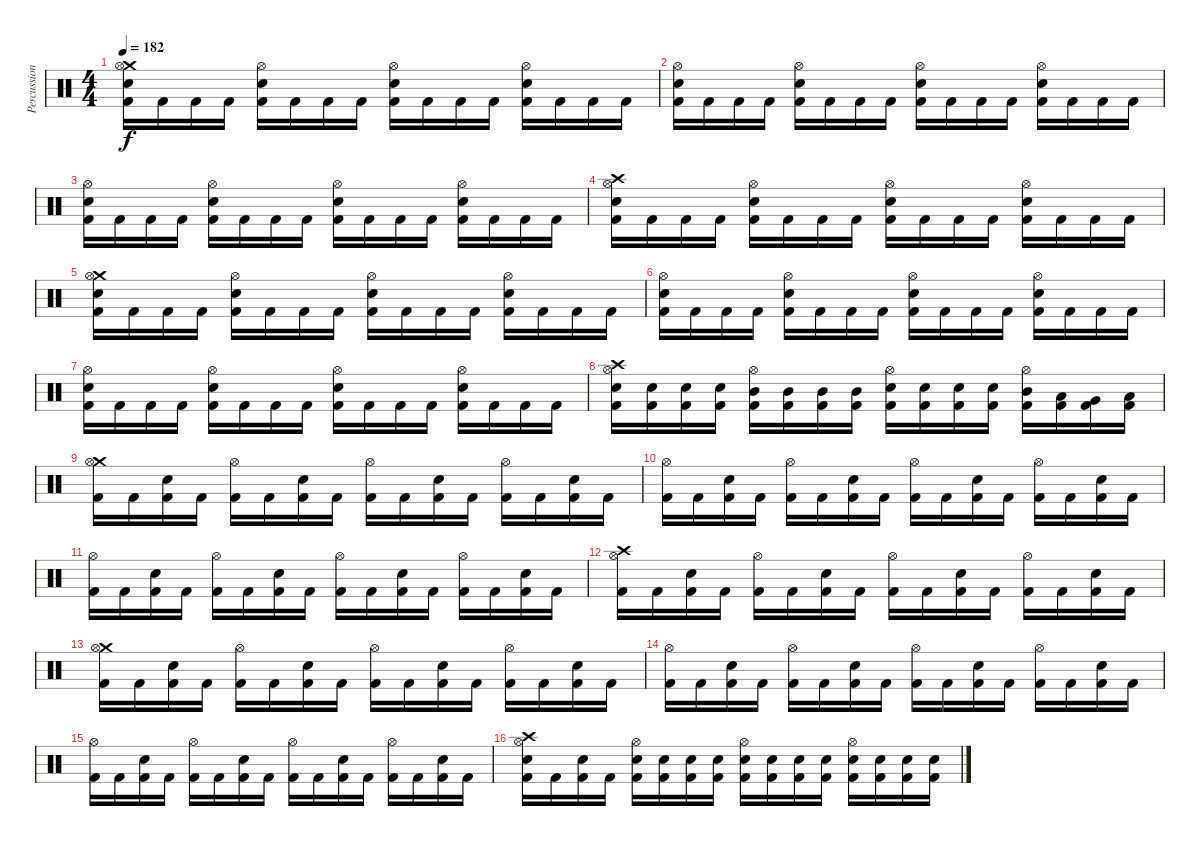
\track ("Percussion" "Percussion") {instrument percussion}
\staff {score}
\articulation defaults
\ts (4 4)
\tempo 182
\clef neutral
\ks c
("Crash medium (hit)" "Hi-Hat (open)" "Electric Snare (hit)" "Kick (hit) 2").16{dy f} "Kick (hit) 2".16 "Kick (hit) 2".16 "Kick (hit) 2".16 ("Hi-Hat (open)" "Electric Snare (hit)" "Kick (hit) 2").16 "Kick (hit) 2".16 "Kick (hit) 2".16 "Kick (hit) 2".16 ("Hi-Hat (open)" "Electric Snare (hit)" "Kick (hit) 2").16 "Kick (hit) 2".16 "Kick (hit) 2".16 "Kick (hit) 2".16 ("Hi-Hat (open)" "Electric Snare (hit)" "Kick (hit) 2").16 "Kick (hit) 2".16 "Kick (hit) 2".16 "Kick (hit) 2".16 |
("Hi-Hat (open)" "Electric Snare (hit)" "Kick (hit) 2").16 "Kick (hit) 2".16 "Kick (hit) 2".16 "Kick (hit) 2".16 ("Hi-Hat (open)" "Electric Snare (hit)" "Kick (hit) 2").16 "Kick (hit) 2".16 "Kick (hit) 2".16 "Kick (hit) 2".16 ("Hi-Hat (open)" "Electric Snare (hit)" "Kick (hit) 2").16 "Kick (hit) 2".16 "Kick (hit) 2".16 "Kick (hit) 2".16 ("Hi-Hat (open)" "Electric Snare (hit)" "Kick (hit) 2").16 "Kick (hit) 2".16 "Kick (hit) 2".16 "Kick (hit) 2".16 |
("Hi-Hat (open)" "Electric Snare (hit)" "Kick (hit) 2").16 "Kick (hit) 2".16 "Kick (hit) 2".16 "Kick (hit) 2".16 ("Hi-Hat (open)" "Electric Snare (hit)" "Kick (hit) 2").16 "Kick (hit) 2".16 "Kick (hit) 2".16 "Kick (hit) 2".16 ("Hi-Hat (open)" "Electric Snare (hit)" "Kick (hit) 2").16 "Kick (hit) 2".16 "Kick (hit) 2".16 "Kick (hit) 2".16 ("Hi-Hat (open)" "Electric Snare (hit)" "Kick (hit) 2").16 "Kick (hit) 2".16 "Kick (hit) 2".16 "Kick (hit) 2".16 |
("Crash high (hit)" "Hi-Hat (open)" "Electric Snare (hit)" "Kick (hit) 2").16 "Kick (hit) 2".16 "Kick (hit) 2".16 "Kick (hit) 2".16 ("Hi-Hat (open)" "Electric Snare (hit)" "Kick (hit) 2").16 "Kick (hit) 2".16 "Kick (hit) 2".16 "Kick (hit) 2".16 ("Hi-Hat (open)" "Electric Snare (hit)" "Kick (hit) 2").16 "Kick (hit) 2".16 "Kick (hit) 2".16 "Kick (hit) 2".16 ("Hi-Hat (open)" "Electric Snare (hit)" "Kick (hit) 2").16 "Kick (hit) 2".16 "Kick (hit) 2".16 "Kick (hit) 2".16 |
("Crash medium (hit)" "Hi-Hat (open)" "Electric Snare (hit)" "Kick (hit) 2").16 "Kick (hit) 2".16 "Kick (hit) 2".16 "Kick (hit) 2".16 ("Hi-Hat (open)" "Electric Snare (hit)" "Kick (hit) 2").16 "Kick (hit) 2".16 "Kick (hit) 2".16 "Kick (hit) 2".16 ("Hi-Hat (open)" "Electric Snare (hit)" "Kick (hit) 2").16 "Kick (hit) 2".16 "Kick (hit) 2".16 "Kick (hit) 2".16 ("Hi-Hat (open)" "Electric Snare (hit)" "Kick (hit) 2").16 "Kick (hit) 2".16 "Kick (hit) 2".16 "Kick (hit) 2".16 |
("Hi-Hat (open)" "Electric Snare (hit)" "Kick (hit) 2").16 "Kick (hit) 2".16 "Kick (hit) 2".16 "Kick (hit) 2".16 ("Hi-Hat (open)" "Electric Snare (hit)" "Kick (hit) 2").16 "Kick (hit) 2".16 "Kick (hit) 2".16 "Kick (hit) 2".16 ("Hi-Hat (open)" "Electric Snare (hit)" "Kick (hit) 2").16 "Kick (hit) 2".16 "Kick (hit) 2".16 "Kick (hit) 2".16 ("Hi-Hat (open)" "Electric Snare (hit)" "Kick (hit) 2").16 "Kick (hit) 2".16 "Kick (hit) 2".16 "Kick (hit) 2".16 |
("Hi-Hat (open)" "Electric Snare (hit)" "Kick (hit) 2").16 "Kick (hit) 2".16 "Kick (hit) 2".16 "Kick (hit) 2".16 ("Hi-Hat (open)" "Electric Snare (hit)" "Kick (hit) 2").16 "Kick (hit) 2".16 "Kick (hit) 2".16 "Kick (hit) 2".16 ("Hi-Hat (open)" "Electric Snare (hit)" "Kick (hit) 2").16 "Kick (hit) 2".16 "Kick (hit) 2".16 "Kick (hit) 2".16 ("Hi-Hat (open)" "Electric Snare (hit)" "Kick (hit) 2").16 "Kick (hit) 2".16 "Kick (hit) 2".16 "Kick (hit) 2".16 |
("Crash high (hit)" "Hi-Hat (open)" "Electric Snare (hit)" "Kick (hit) 2").16 ("Electric Snare (hit)" "Kick (hit) 2").16 ("Electric Snare (hit)" "Kick (hit) 2").16 ("Electric Snare (hit)" "Kick (hit) 2").16 ("Hi-Hat (open)" "Mid Tom (hit)" "Kick (hit) 2").16 ("Mid Tom (hit)" "Kick (hit) 2").16 ("Mid Tom (hit)" "Kick (hit) 2").16 ("Mid Tom (hit)" "Kick (hit) 2").16 ("Hi-Hat (open)" "Electric Snare (hit)" "Kick (hit) 2").16 ("Electric Snare (hit)" "Kick (hit) 2").16 ("Electric Snare (hit)" "Kick (hit) 2").16 ("Electric Snare (hit)" "Kick (hit) 2").16 ("Hi-Hat (open)" "Mid Tom (hit)" "Kick (hit) 2").16 ("Low Tom (hit)" "Kick (hit) 2").16 ("Very Low Tom (hit)" "Kick (hit) 2").16 ("Low Floor Tom (hit)" "Kick (hit) 2").16 |
("Crash medium (hit)" "Hi-Hat (open)" "Kick (hit) 2").16 "Kick (hit) 2".16 ("Electric Snare (hit)" "Kick (hit) 2").16 "Kick (hit) 2".16 ("Hi-Hat (open)" "Kick (hit) 2").16 "Kick (hit) 2".16 ("Electric Snare (hit)" "Kick (hit) 2").16 "Kick (hit) 2".16 ("Hi-Hat (open)" "Kick (hit) 2").16 "Kick (hit) 2".16 ("Electric Snare (hit)" "Kick (hit) 2").16 "Kick (hit) 2".16 ("Hi-Hat (open)" "Kick (hit) 2").16 "Kick (hit) 2".16 ("Electric Snare (hit)" "Kick (hit) 2").16 "Kick (hit) 2".16 |
("Hi-Hat (open)" "Kick (hit) 2").16 "Kick (hit) 2".16 ("Electric Snare (hit)" "Kick (hit) 2").16 "Kick (hit) 2".16 ("Hi-Hat (open)" "Kick (hit) 2").16 "Kick (hit) 2".16 ("Electric Snare (hit)" "Kick (hit) 2").16 "Kick (hit) 2".16 ("Hi-Hat (open)" "Kick (hit) 2").16 "Kick (hit) 2".16 ("Electric Snare (hit)" "Kick (hit) 2").16 "Kick (hit) 2".16 ("Hi-Hat (open)" "Kick (hit) 2").16 "Kick (hit) 2".16 ("Electric Snare (hit)" "Kick (hit) 2").16 "Kick (hit) 2".16 |
("Hi-Hat (open)" "Kick (hit) 2").16 "Kick (hit) 2".16 ("Electric Snare (hit)" "Kick (hit) 2").16 "Kick (hit) 2".16 ("Hi-Hat (open)" "Kick (hit) 2").16 "Kick (hit) 2".16 ("Electric Snare (hit)" "Kick (hit) 2").16 "Kick (hit) 2".16 ("Hi-Hat (open)" "Kick (hit) 2").16 "Kick (hit) 2".16 ("Electric Snare (hit)" "Kick (hit) 2").16 "Kick (hit) 2".16 ("Hi-Hat (open)" "Kick (hit) 2").16 "Kick (hit) 2".16 ("Electric Snare (hit)" "Kick (hit) 2").16 "Kick (hit) 2".16 |
("Crash high (hit)" "Hi-Hat (open)" "Kick (hit) 2").16 "Kick (hit) 2".16 ("Electric Snare (hit)" "Kick (hit) 2").16 "Kick (hit) 2".16 ("Hi-Hat (open)" "Kick (hit) 2").16 "Kick (hit) 2".16 ("Electric Snare (hit)" "Kick (hit) 2").16 "Kick (hit) 2".16 ("Hi-Hat (open)" "Kick (hit) 2").16 "Kick (hit) 2".16 ("Electric Snare (hit)" "Kick (hit) 2").16 "Kick (hit) 2".16 ("Hi-Hat (open)" "Kick (hit) 2").16 "Kick (hit) 2".16 ("Electric Snare (hit)" "Kick (hit) 2").16 "Kick (hit) 2".16 |
("Crash medium (hit)" "Hi-Hat (open)" "Kick (hit) 2").16 "Kick (hit) 2".16 ("Electric Snare (hit)" "Kick (hit) 2").16 "Kick (hit) 2".16 ("Hi-Hat (open)" "Kick (hit) 2").16 "Kick (hit) 2".16 ("Electric Snare (hit)" "Kick (hit) 2").16 "Kick (hit) 2".16 ("Hi-Hat (open)" "Kick (hit) 2").16 "Kick (hit) 2".16 ("Electric Snare (hit)" "Kick (hit) 2").16 "Kick (hit) 2".16 ("Hi-Hat (open)" "Kick (hit) 2").16 "Kick (hit) 2".16 ("Electric Snare (hit)" "Kick (hit) 2").16 "Kick (hit) 2".16 |
("Hi-Hat (open)" "Kick (hit) 2").16 "Kick (hit) 2".16 ("Electric Snare (hit)" "Kick (hit) 2").16 "Kick (hit) 2".16 ("Hi-Hat (open)" "Kick (hit) 2").16 "Kick (hit) 2".16 ("Electric Snare (hit)" "Kick (hit) 2").16 "Kick (hit) 2".16 ("Hi-Hat (open)" "Kick (hit) 2").16 "Kick (hit) 2".16 ("Electric Snare (hit)" "Kick (hit) 2").16 "Kick (hit) 2".16 ("Hi-Hat (open)" "Kick (hit) 2").16 "Kick (hit) 2".16 ("Electric Snare (hit)" "Kick (hit) 2").16 "Kick (hit) 2".16 |
("Hi-Hat (open)" "Kick (hit) 2").16 "Kick (hit) 2".16 ("Electric Snare (hit)" "Kick (hit) 2").16 "Kick (hit) 2".16 ("Hi-Hat (open)" "Kick (hit) 2").16 "Kick (hit) 2".16 ("Electric Snare (hit)" "Kick (hit) 2").16 "Kick (hit) 2".16 ("Hi-Hat (open)" "Kick (hit) 2").16 "Kick (hit) 2".16 ("Electric Snare (hit)" "Kick (hit) 2").16 "Kick (hit) 2".16 ("Hi-Hat (open)" "Kick (hit) 2").16 "Kick (hit) 2".16 ("Electric Snare (hit)" "Kick (hit) 2").16 "Kick (hit) 2".16 |
("Crash high (hit)" "Hi-Hat (open)" "Electric Snare (hit)" "Kick (hit) 2").16 "Kick (hit) 2".16 ("Electric Snare (hit)" "Kick (hit) 2").16 "Kick (hit) 2".16 ("Hi-Hat (open)" "Electric Snare (hit)" "Kick (hit) 2").16 ("Electric Snare (hit)" "Kick (hit) 2").16 ("Electric Snare (hit)" "Kick (hit) 2").16 ("Electric Snare (hit)" "Kick (hit) 2").16 ("Hi-Hat (open)" "Electric Snare (hit)" "Kick (hit) 2").16 ("Electric Snare (hit)" "Kick (hit) 2").16 ("Electric Snare (hit)" "Kick (hit) 2").16 ("Electric Snare (hit)" "Kick (hit) 2").16 ("Hi-Hat (open)" "Electric Snare (hit)" "Kick (hit) 2").16 ("Electric Snare (hit)" "Kick (hit) 2").16 ("Electric Snare (hit)" "Kick (hit) 2").16 ("Electric Snare (hit)" "Kick (hit) 2").16
